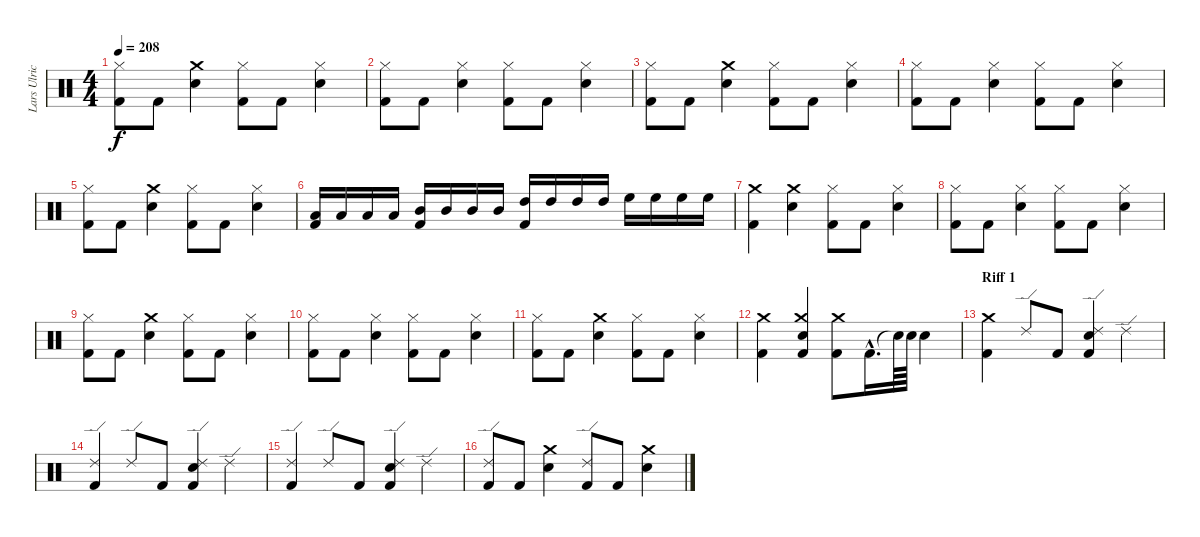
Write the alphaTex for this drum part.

\track ("Lars Ulrich (Drums)" "Lars Ulric") {instrument percussion}
\staff {score}
\articulation defaults
\ts (4 4)
\tempo 208
\clef neutral
\ks c
("Kick (hit) 2" "Hi-Hat (closed)").8{dy f} "Kick (hit) 2".8 ("Crash medium (hit)" "Snare (hit) 2").4 ("Kick (hit) 2" "Hi-Hat (closed)").8 "Kick (hit) 2".8 ("Snare (hit) 2" "Hi-Hat (closed)").4 |
("Kick (hit) 2" "Hi-Hat (closed)").8 "Kick (hit) 2".8 ("Snare (hit) 2" "Hi-Hat (closed)").4 ("Kick (hit) 2" "Hi-Hat (closed)").8 "Kick (hit) 2".8 ("Snare (hit) 2" "Hi-Hat (closed)").4 |
("Kick (hit) 2" "Hi-Hat (closed)").8 "Kick (hit) 2".8 ("Crash medium (hit)" "Snare (hit) 2").4 ("Kick (hit) 2" "Hi-Hat (closed)").8 "Kick (hit) 2".8 ("Snare (hit) 2" "Hi-Hat (closed)").4 |
("Kick (hit) 2" "Hi-Hat (closed)").8 "Kick (hit) 2".8 ("Snare (hit) 2" "Hi-Hat (closed)").4 ("Kick (hit) 2" "Hi-Hat (closed)").8 "Kick (hit) 2".8 ("Snare (hit) 2" "Hi-Hat (closed)").4 |
("Kick (hit) 2" "Hi-Hat (closed)").8 "Kick (hit) 2".8 ("Crash medium (hit)" "Snare (hit) 2").4 ("Kick (hit) 2" "Hi-Hat (closed)").8 "Kick (hit) 2".8 ("Snare (hit) 2" "Hi-Hat (closed)").4 |
("Low Tom (hit)" "Kick (hit) 2").16 "Low Tom (hit)".16 "Low Tom (hit)".16 "Low Tom (hit)".16 ("Mid Tom (hit)" "Kick (hit) 2").16 "Mid Tom (hit)".16 "Mid Tom (hit)".16 "Mid Tom (hit)".16 ("High Tom (hit)" "Kick (hit) 2").16 "High Tom (hit)".16 "High Tom (hit)".16 "High Tom (hit)".16 "High Floor Tom (hit)".16 "High Floor Tom (hit)".16 "High Floor Tom (hit)".16 "High Floor Tom (hit)".16 |
("Kick (hit) 2" "Crash medium (hit)").4 ("Snare (hit) 2" "Crash medium (hit)").4 ("Hi-Hat (closed)" "Kick (hit) 2").8 "Kick (hit) 2".8 ("Hi-Hat (closed)" "Snare (hit) 2").4 |
("Kick (hit) 2" "Hi-Hat (closed)").8 "Kick (hit) 2".8 ("Snare (hit) 2" "Hi-Hat (closed)").4 ("Kick (hit) 2" "Hi-Hat (closed)").8 "Kick (hit) 2".8 ("Snare (hit) 2" "Hi-Hat (closed)").4 |
("Kick (hit) 2" "Hi-Hat (closed)").8 "Kick (hit) 2".8 ("Crash medium (hit)" "Snare (hit) 2").4 ("Kick (hit) 2" "Hi-Hat (closed)").8 "Kick (hit) 2".8 ("Snare (hit) 2" "Hi-Hat (closed)").4 |
("Kick (hit) 2" "Hi-Hat (closed)").8 "Kick (hit) 2".8 ("Snare (hit) 2" "Hi-Hat (closed)").4 ("Kick (hit) 2" "Hi-Hat (closed)").8 "Kick (hit) 2".8 ("Snare (hit) 2" "Hi-Hat (closed)").4 |
("Kick (hit) 2" "Hi-Hat (closed)").8 "Kick (hit) 2".8 ("Crash medium (hit)" "Snare (hit) 2").4 ("Kick (hit) 2" "Hi-Hat (closed)").8 "Kick (hit) 2".8 ("Snare (hit) 2" "Hi-Hat (closed)").4 |
("Kick (hit) 2" "Crash medium (hit)").4 ("Kick (hit) 2" "Snare (hit) 2" "Crash medium (hit)").4 ("Kick (hit) 2" "Crash medium (hit)").8 "Kick (hit) 2"{hac}.16{d} "Snare (hit)"{t}.64 "Snare (hit) 2".64 "Snare (hit) 2".4 |
\section ("" "Riff 1")
("Kick (hit) 2" "Crash medium (hit)").4 "Ride (edge) 2".8 "Kick (hit) 2".8 ("Kick (hit) 2" "Snare (hit) 2" "Ride (edge) 2").4 "Ride (edge) 2".4 |
("Kick (hit) 2" "Ride (edge) 2").4 "Ride (edge) 2".8 "Kick (hit) 2".8 ("Kick (hit) 2" "Snare (hit) 2" "Ride (edge) 2").4 "Ride (edge) 2".4 |
("Kick (hit) 2" "Ride (edge) 2").4 "Ride (edge) 2".8 "Kick (hit) 2".8 ("Kick (hit) 2" "Snare (hit) 2" "Ride (edge) 2").4 "Ride (edge) 2".4 |
("Ride (edge) 2" "Kick (hit) 2").8 "Kick (hit) 2".8 ("Snare (hit) 2" "Crash medium (hit)").4 ("Ride (edge) 2" "Kick (hit) 2").8 "Kick (hit) 2".8 ("Snare (hit) 2" "Crash medium (hit)").4
